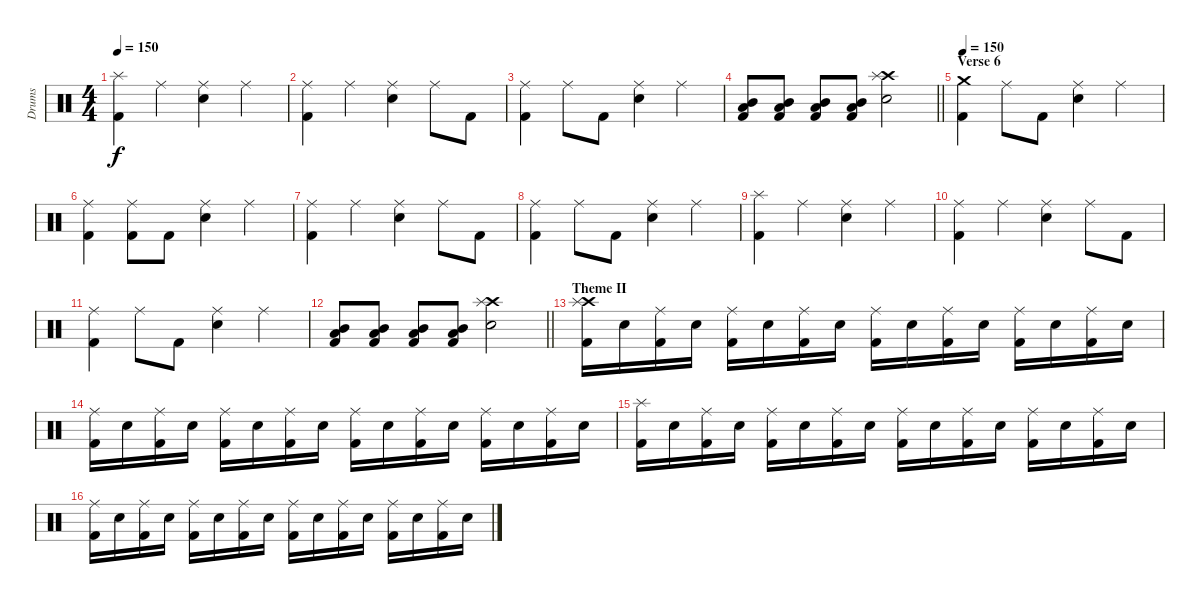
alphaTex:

\track ("Drums" "Drums") {instrument percussion}
\staff {score}
\articulation defaults
\ts (4 4)
\tempo 150
\clef neutral
\ks c
("Splash (hit)" "Kick (hit) 2").4{dy f} "Ride (middle)".4 ("Ride (middle)" "Electric Snare (hit)").4 "Ride (middle)".4 |
("Ride (middle)" "Kick (hit) 2").4 "Ride (middle)".4 ("Ride (middle)" "Electric Snare (hit)").4 "Ride (middle)".8 "Kick (hit) 2".8 |
("Ride (middle)" "Kick (hit) 2").4 "Ride (middle)".8 "Kick (hit) 2".8 ("Ride (middle)" "Electric Snare (hit)").4 "Ride (middle)".4 |
\barLineRight lightlight
("Mid Tom (hit)" "Low Tom (hit)" "Kick (hit) 2").8 ("Mid Tom (hit)" "Low Tom (hit)" "Kick (hit) 2").8 ("Mid Tom (hit)" "Low Tom (hit)" "Kick (hit) 2").8 ("Mid Tom (hit)" "Low Tom (hit)" "Kick (hit) 2").8 ("Crash high (hit)" "Splash (hit)" "Electric Snare (hit)").2 |
\section ("" "Verse 6")
\tempo 150
("Crash medium (hit)" "Kick (hit) 2").4 "Ride (middle)".8 "Kick (hit) 2".8 ("Ride (middle)" "Electric Snare (hit)").4 "Ride (middle)".4 |
("Ride (middle)" "Kick (hit) 2").4 ("Ride (middle)" "Kick (hit) 2").8 "Kick (hit) 2".8 ("Ride (middle)" "Electric Snare (hit)").4 "Ride (middle)".4 |
("Ride (middle)" "Kick (hit) 2").4 "Ride (middle)".4 ("Ride (middle)" "Electric Snare (hit)").4 "Ride (middle)".8 "Kick (hit) 2".8 |
("Ride (middle)" "Kick (hit) 2").4 "Ride (middle)".8 "Kick (hit) 2".8 ("Ride (middle)" "Electric Snare (hit)").4 "Ride (middle)".4 |
("Splash (hit)" "Kick (hit) 2").4 "Ride (middle)".4 ("Ride (middle)" "Electric Snare (hit)").4 "Ride (middle)".4 |
("Ride (middle)" "Kick (hit) 2").4 "Ride (middle)".4 ("Ride (middle)" "Electric Snare (hit)").4 "Ride (middle)".8 "Kick (hit) 2".8 |
("Ride (middle)" "Kick (hit) 2").4 "Ride (middle)".8 "Kick (hit) 2".8 ("Ride (middle)" "Electric Snare (hit)").4 "Ride (middle)".4 |
\barLineRight lightlight
("Mid Tom (hit)" "Low Tom (hit)" "Kick (hit) 2").8 ("Mid Tom (hit)" "Low Tom (hit)" "Kick (hit) 2").8 ("Mid Tom (hit)" "Low Tom (hit)" "Kick (hit) 2").8 ("Mid Tom (hit)" "Low Tom (hit)" "Kick (hit) 2").8 ("Crash high (hit)" "Splash (hit)" "Electric Snare (hit)").2 |
\section ("" "Theme II")
("Crash high (hit)" "Splash (hit)" "Kick (hit) 2").16 "Electric Snare (hit)".16 ("Ride (middle)" "Kick (hit) 2").16 "Electric Snare (hit)".16 ("Ride (middle)" "Kick (hit) 2").16 "Electric Snare (hit)".16 ("Ride (middle)" "Kick (hit) 2").16 "Electric Snare (hit)".16 ("Ride (middle)" "Kick (hit) 2").16 "Electric Snare (hit)".16 ("Ride (middle)" "Kick (hit) 2").16 "Electric Snare (hit)".16 ("Ride (middle)" "Kick (hit) 2").16 "Electric Snare (hit)".16 ("Ride (middle)" "Kick (hit) 2").16 "Electric Snare (hit)".16 |
("Ride (middle)" "Kick (hit) 2").16 "Electric Snare (hit)".16 ("Ride (middle)" "Kick (hit) 2").16 "Electric Snare (hit)".16 ("Ride (middle)" "Kick (hit) 2").16 "Electric Snare (hit)".16 ("Ride (middle)" "Kick (hit) 2").16 "Electric Snare (hit)".16 ("Ride (middle)" "Kick (hit) 2").16 "Electric Snare (hit)".16 ("Ride (middle)" "Kick (hit) 2").16 "Electric Snare (hit)".16 ("Ride (middle)" "Kick (hit) 2").16 "Electric Snare (hit)".16 ("Ride (middle)" "Kick (hit) 2").16 "Electric Snare (hit)".16 |
("Splash (hit)" "Kick (hit) 2").16 "Electric Snare (hit)".16 ("Ride (middle)" "Kick (hit) 2").16 "Electric Snare (hit)".16 ("Ride (middle)" "Kick (hit) 2").16 "Electric Snare (hit)".16 ("Ride (middle)" "Kick (hit) 2").16 "Electric Snare (hit)".16 ("Ride (middle)" "Kick (hit) 2").16 "Electric Snare (hit)".16 ("Ride (middle)" "Kick (hit) 2").16 "Electric Snare (hit)".16 ("Ride (middle)" "Kick (hit) 2").16 "Electric Snare (hit)".16 ("Ride (middle)" "Kick (hit) 2").16 "Electric Snare (hit)".16 |
("Ride (middle)" "Kick (hit) 2").16 "Electric Snare (hit)".16 ("Ride (middle)" "Kick (hit) 2").16 "Electric Snare (hit)".16 ("Ride (middle)" "Kick (hit) 2").16 "Electric Snare (hit)".16 ("Ride (middle)" "Kick (hit) 2").16 "Electric Snare (hit)".16 ("Ride (middle)" "Kick (hit) 2").16 "Electric Snare (hit)".16 ("Ride (middle)" "Kick (hit) 2").16 "Electric Snare (hit)".16 ("Ride (middle)" "Kick (hit) 2").16 "Electric Snare (hit)".16 ("Ride (middle)" "Kick (hit) 2").16 "Electric Snare (hit)".16
